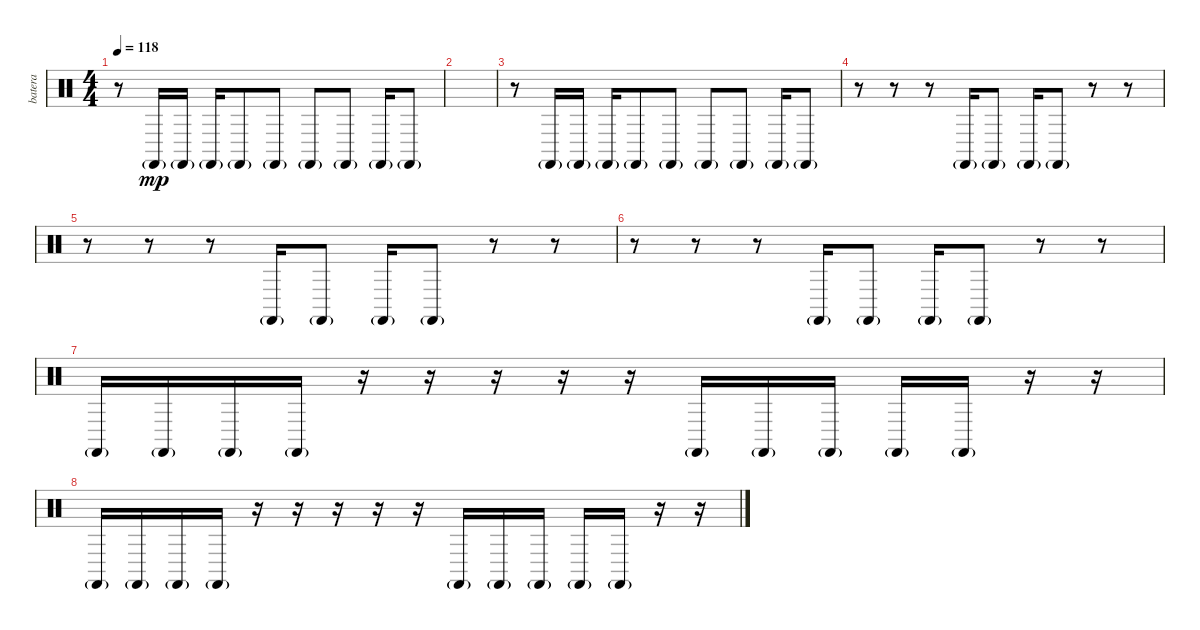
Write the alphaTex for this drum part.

\track ("batera" "batera") {instrument percussion}
\staff {score}
\articulation defaults
\ts (4 4)
\tempo 118
\clef neutral
\ks c
r.8{dy mp} "Castanets (hit)"{g}.16 "Castanets (hit)"{g}.16 "Castanets (hit)"{g}.16 "Castanets (hit)"{g}.8 "Castanets (hit)"{g}.8 "Castanets (hit)"{g}.8 "Castanets (hit)"{g}.8 "Castanets (hit)"{g}.16 "Castanets (hit)"{g}.8 |
|
r.8 "Castanets (hit)"{g}.16 "Castanets (hit)"{g}.16 "Castanets (hit)"{g}.16 "Castanets (hit)"{g}.8 "Castanets (hit)"{g}.8 "Castanets (hit)"{g}.8 "Castanets (hit)"{g}.8 "Castanets (hit)"{g}.16 "Castanets (hit)"{g}.8 |
r.8 r.8 r.8 "Castanets (hit)"{g}.16 "Castanets (hit)"{g}.8 "Castanets (hit)"{g}.16 "Castanets (hit)"{g}.8 r.8 r.8 |
r.8 r.8 r.8 "Castanets (hit)"{g}.16 "Castanets (hit)"{g}.8 "Castanets (hit)"{g}.16 "Castanets (hit)"{g}.8 r.8 r.8 |
r.8 r.8 r.8 "Castanets (hit)"{g}.16 "Castanets (hit)"{g}.8 "Castanets (hit)"{g}.16 "Castanets (hit)"{g}.8 r.8 r.8 |
"Castanets (hit)"{g}.16 "Castanets (hit)"{g}.16 "Castanets (hit)"{g}.16 "Castanets (hit)"{g}.16 r.16 r.16 r.16 r.16 r.16 "Castanets (hit)"{g}.16 "Castanets (hit)"{g}.16 "Castanets (hit)"{g}.16 "Castanets (hit)"{g}.16 "Castanets (hit)"{g}.16 r.16 r.16 |
"Castanets (hit)"{g}.16 "Castanets (hit)"{g}.16 "Castanets (hit)"{g}.16 "Castanets (hit)"{g}.16 r.16 r.16 r.16 r.16 r.16 "Castanets (hit)"{g}.16 "Castanets (hit)"{g}.16 "Castanets (hit)"{g}.16 "Castanets (hit)"{g}.16 "Castanets (hit)"{g}.16 r.16 r.16
